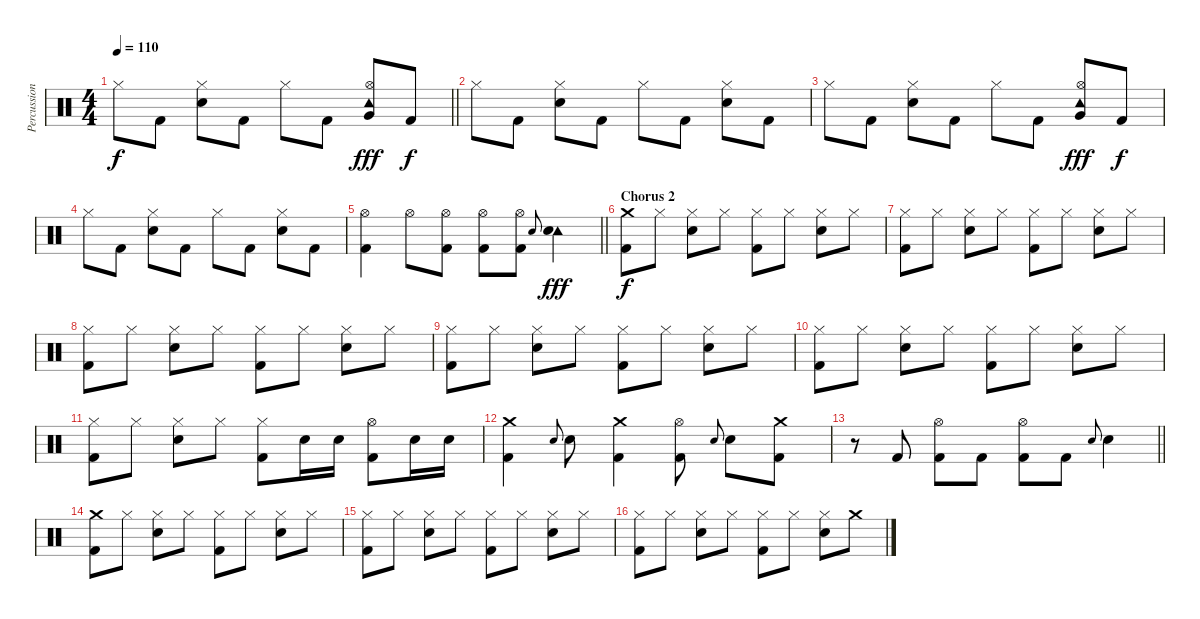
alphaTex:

\track ("Percussion" "Percussion") {instrument percussion}
\staff {score}
\articulation defaults
\ts (4 4)
\tempo 110
\clef neutral
\barLineRight lightlight
\ks aminor "Hi-Hat (closed)".8{dy f} "Kick (hit) 2".8
("Hi-Hat (closed)" "Electric Snare (hit)").8 "Kick (hit) 2".8 "Hi-Hat (closed)".8 "Kick (hit) 2".8 ("Tambourine (hit)" "Hi-Hat (open)" "Very Low Tom (hit)").8{dy fff} "Kick (hit) 2".8{dy f} |
"Hi-Hat (closed)".8 "Kick (hit) 2".8 ("Hi-Hat (closed)" "Electric Snare (hit)").8 "Kick (hit) 2".8 "Hi-Hat (closed)".8 "Kick (hit) 2".8 ("Hi-Hat (closed)" "Electric Snare (hit)").8 "Kick (hit) 2".8 |
"Hi-Hat (closed)".8 "Kick (hit) 2".8 ("Hi-Hat (closed)" "Electric Snare (hit)").8 "Kick (hit) 2".8 "Hi-Hat (closed)".8 "Kick (hit) 2".8 ("Tambourine (hit)" "Hi-Hat (open)" "Very Low Tom (hit)").8{dy fff} "Kick (hit) 2".8{dy f} |
"Hi-Hat (closed)".8 "Kick (hit) 2".8 ("Hi-Hat (closed)" "Electric Snare (hit)").8 "Kick (hit) 2".8 "Hi-Hat (closed)".8 "Kick (hit) 2".8 ("Hi-Hat (closed)" "Electric Snare (hit)").8 "Kick (hit) 2".8 |
\barLineRight lightlight
("Hi-Hat (open)" "Kick (hit) 2").4 "Hi-Hat (open)".8 ("Hi-Hat (open)" "Kick (hit) 2").8 ("Hi-Hat (open)" "Kick (hit) 2").8 ("Hi-Hat (open)" "Kick (hit) 2").8 "Electric Snare (hit)".8{gr onbeat} ("Tambourine (hit)" "Electric Snare (hit)").4{dy fff} |
\section ("" "Chorus 2")
("Crash medium (hit)" "Kick (hit) 2").8{dy f} "Hi-Hat (closed)".8 ("Hi-Hat (closed)" "Electric Snare (hit)").8 "Hi-Hat (closed)".8 ("Hi-Hat (closed)" "Kick (hit) 2").8 "Hi-Hat (closed)".8 ("Hi-Hat (closed)" "Electric Snare (hit)").8 "Hi-Hat (closed)".8 |
("Hi-Hat (closed)" "Kick (hit) 2").8 "Hi-Hat (closed)".8 ("Hi-Hat (closed)" "Electric Snare (hit)").8 "Hi-Hat (closed)".8 ("Hi-Hat (closed)" "Kick (hit) 2").8 "Hi-Hat (closed)".8 ("Hi-Hat (closed)" "Electric Snare (hit)").8 "Hi-Hat (closed)".8 |
("Hi-Hat (closed)" "Kick (hit) 2").8 "Hi-Hat (closed)".8 ("Hi-Hat (closed)" "Electric Snare (hit)").8 "Hi-Hat (closed)".8 ("Hi-Hat (closed)" "Kick (hit) 2").8 "Hi-Hat (closed)".8 ("Hi-Hat (closed)" "Electric Snare (hit)").8 "Hi-Hat (closed)".8 |
("Hi-Hat (closed)" "Kick (hit) 2").8 "Hi-Hat (closed)".8 ("Hi-Hat (closed)" "Electric Snare (hit)").8 "Hi-Hat (closed)".8 ("Hi-Hat (closed)" "Kick (hit) 2").8 "Hi-Hat (closed)".8 ("Hi-Hat (closed)" "Electric Snare (hit)").8 "Hi-Hat (closed)".8 |
("Hi-Hat (closed)" "Kick (hit) 2").8 "Hi-Hat (closed)".8 ("Hi-Hat (closed)" "Electric Snare (hit)").8 "Hi-Hat (closed)".8 ("Hi-Hat (closed)" "Kick (hit) 2").8 "Hi-Hat (closed)".8 ("Hi-Hat (closed)" "Electric Snare (hit)").8 "Hi-Hat (closed)".8 |
("Hi-Hat (closed)" "Kick (hit) 2").8 "Hi-Hat (closed)".8 ("Hi-Hat (closed)" "Electric Snare (hit)").8 "Hi-Hat (closed)".8 ("Hi-Hat (closed)" "Kick (hit) 2").8 "Electric Snare (hit)".16 "Electric Snare (hit)".16 ("Hi-Hat (open)" "Kick (hit) 2").8 "Electric Snare (hit)".16 "Electric Snare (hit)".16 |
("Crash medium (hit)" "Kick (hit) 2").4 "Electric Snare (hit)".8{gr onbeat} "Electric Snare (hit)".8 ("Crash medium (hit)" "Kick (hit) 2").4 ("Hi-Hat (open)" "Kick (hit) 2").8 "Electric Snare (hit)".8{gr onbeat} "Electric Snare (hit)".8 ("Crash medium (hit)" "Kick (hit) 2").8 |
\barLineRight lightlight
r.8 "Kick (hit) 2".8 ("Hi-Hat (open)" "Kick (hit) 2").8 "Kick (hit) 2".8 ("Hi-Hat (open)" "Kick (hit) 2").8 "Kick (hit) 2".8 "Electric Snare (hit)".8{gr onbeat} "Electric Snare (hit)".4 |
("Crash medium (hit)" "Kick (hit) 2").8 "Hi-Hat (closed)".8 ("Hi-Hat (closed)" "Electric Snare (hit)").8 "Hi-Hat (closed)".8 ("Hi-Hat (closed)" "Kick (hit) 2").8 "Hi-Hat (closed)".8 ("Hi-Hat (closed)" "Electric Snare (hit)").8 "Hi-Hat (closed)".8 |
("Hi-Hat (closed)" "Kick (hit) 2").8 "Hi-Hat (closed)".8 ("Hi-Hat (closed)" "Electric Snare (hit)").8 "Hi-Hat (closed)".8 ("Hi-Hat (closed)" "Kick (hit) 2").8 "Hi-Hat (closed)".8 ("Hi-Hat (closed)" "Electric Snare (hit)").8 "Hi-Hat (closed)".8 |
("Hi-Hat (closed)" "Kick (hit) 2").8 "Hi-Hat (closed)".8 ("Hi-Hat (closed)" "Electric Snare (hit)").8 "Hi-Hat (closed)".8 ("Hi-Hat (closed)" "Kick (hit) 2").8 "Hi-Hat (closed)".8 ("Hi-Hat (closed)" "Electric Snare (hit)").8 "Crash medium (hit)".8
